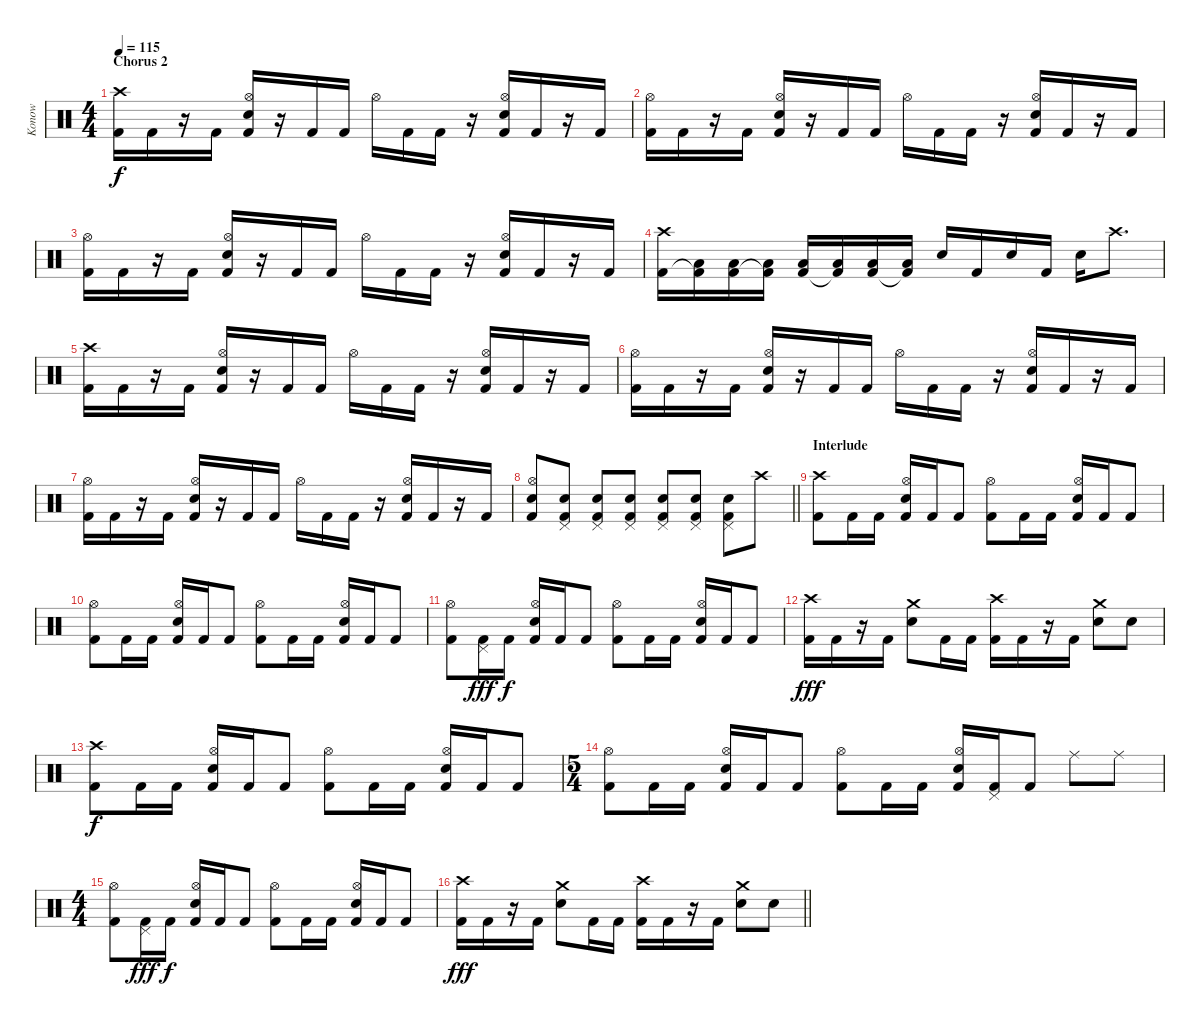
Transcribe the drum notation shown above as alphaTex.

\track ("Konow" "Konow") {instrument percussion}
\staff {score}
\articulation defaults
\ts (4 4)
\section ("" "Chorus 2")
\tempo 115
\clef neutral
\ks c
("Crash high (hit)" "Kick (hit) 2").16{dy f} "Kick (hit) 2".16 r.16 "Kick (hit) 2".16 ("Hi-Hat (open)" "Electric Snare (hit)" "Kick (hit) 2").16 r.16 "Kick (hit) 2".16 "Kick (hit) 2".16 "Hi-Hat (open)".16 "Kick (hit) 2".16 "Kick (hit) 2".16 r.16 ("Hi-Hat (open)" "Electric Snare (hit)" "Kick (hit) 2").16 "Kick (hit) 2".16 r.16 "Kick (hit) 2".16 |
("Hi-Hat (open)" "Kick (hit) 2").16 "Kick (hit) 2".16 r.16 "Kick (hit) 2".16 ("Hi-Hat (open)" "Electric Snare (hit)" "Kick (hit) 2").16 r.16 "Kick (hit) 2".16 "Kick (hit) 2".16 "Hi-Hat (open)".16 "Kick (hit) 2".16 "Kick (hit) 2".16 r.16 ("Hi-Hat (open)" "Electric Snare (hit)" "Kick (hit) 2").16 "Kick (hit) 2".16 r.16 "Kick (hit) 2".16 |
("Hi-Hat (open)" "Kick (hit) 2").16 "Kick (hit) 2".16 r.16 "Kick (hit) 2".16 ("Hi-Hat (open)" "Electric Snare (hit)" "Kick (hit) 2").16 r.16 "Kick (hit) 2".16 "Kick (hit) 2".16 "Hi-Hat (open)".16 "Kick (hit) 2".16 "Kick (hit) 2".16 r.16 ("Hi-Hat (open)" "Electric Snare (hit)" "Kick (hit) 2").16 "Kick (hit) 2".16 r.16 "Kick (hit) 2".16 |
("Crash high (hit)" "Kick (hit) 2").16 ("Low Tom (hit)" "Kick (hit) 2"{t}).16 ("Low Tom (hit)" "Kick (hit) 2").16 ("Low Tom (hit)" "Kick (hit) 2"{t}).16 ("Low Tom (hit)" "Kick (hit) 2").16 ("Low Tom (hit)" "Kick (hit) 2"{t}).16 ("Low Tom (hit)" "Kick (hit) 2").16 ("Low Tom (hit)" "Kick (hit) 2"{t}).16 "Electric Snare (hit)".16 "Kick (hit) 2".16 "Electric Snare (hit)".16 "Kick (hit) 2".16 "Electric Snare (hit)".16 "Crash high (hit)".8{d} |
("Crash high (hit)" "Kick (hit) 2").16 "Kick (hit) 2".16 r.16 "Kick (hit) 2".16 ("Hi-Hat (open)" "Electric Snare (hit)" "Kick (hit) 2").16 r.16 "Kick (hit) 2".16 "Kick (hit) 2".16 "Hi-Hat (open)".16 "Kick (hit) 2".16 "Kick (hit) 2".16 r.16 ("Hi-Hat (open)" "Electric Snare (hit)" "Kick (hit) 2").16 "Kick (hit) 2".16 r.16 "Kick (hit) 2".16 |
("Hi-Hat (open)" "Kick (hit) 2").16 "Kick (hit) 2".16 r.16 "Kick (hit) 2".16 ("Hi-Hat (open)" "Electric Snare (hit)" "Kick (hit) 2").16 r.16 "Kick (hit) 2".16 "Kick (hit) 2".16 "Hi-Hat (open)".16 "Kick (hit) 2".16 "Kick (hit) 2".16 r.16 ("Hi-Hat (open)" "Electric Snare (hit)" "Kick (hit) 2").16 "Kick (hit) 2".16 r.16 "Kick (hit) 2".16 |
("Hi-Hat (open)" "Kick (hit) 2").16 "Kick (hit) 2".16 r.16 "Kick (hit) 2".16 ("Hi-Hat (open)" "Electric Snare (hit)" "Kick (hit) 2").16 r.16 "Kick (hit) 2".16 "Kick (hit) 2".16 "Hi-Hat (open)".16 "Kick (hit) 2".16 "Kick (hit) 2".16 r.16 ("Hi-Hat (open)" "Electric Snare (hit)" "Kick (hit) 2").16 "Kick (hit) 2".16 r.16 "Kick (hit) 2".16 |
\barLineRight lightlight
("Hi-Hat (open)" "Electric Snare (hit)" "Kick (hit) 2").8 ("Pedal Hi-Hat (hit)" "Electric Snare (hit)" "Kick (hit) 2").8 ("Pedal Hi-Hat (hit)" "Electric Snare (hit)" "Kick (hit) 2").8 ("Pedal Hi-Hat (hit)" "Electric Snare (hit)" "Kick (hit) 2").8 ("Pedal Hi-Hat (hit)" "Electric Snare (hit)" "Kick (hit) 2").8 ("Pedal Hi-Hat (hit)" "Electric Snare (hit)" "Kick (hit) 2").8 ("Pedal Hi-Hat (hit)" "Electric Snare (hit)" "Kick (hit) 2").8 "Crash high (hit)".8 |
\section ("" "Interlude")
("Crash high (hit)" "Kick (hit) 2").8 "Kick (hit) 2".16 "Kick (hit) 2".16 ("Electric Snare (hit)" "Hi-Hat (open)" "Kick (hit) 2").16 "Kick (hit) 2".16 "Kick (hit) 2".8 ("Hi-Hat (open)" "Kick (hit) 2").8 "Kick (hit) 2".16 "Kick (hit) 2".16 ("Electric Snare (hit)" "Hi-Hat (open)" "Kick (hit) 2").16 "Kick (hit) 2".16 "Kick (hit) 2".8 |
("Hi-Hat (open)" "Kick (hit) 2").8 "Kick (hit) 2".16 "Kick (hit) 2".16 ("Electric Snare (hit)" "Hi-Hat (open)" "Kick (hit) 2").16 "Kick (hit) 2".16 "Kick (hit) 2".8 ("Hi-Hat (open)" "Kick (hit) 2").8 "Kick (hit) 2".16 "Kick (hit) 2".16 ("Electric Snare (hit)" "Hi-Hat (open)" "Kick (hit) 2").16 "Kick (hit) 2".16 "Kick (hit) 2".8 |
("Hi-Hat (open)" "Kick (hit) 2").8 ("Pedal Hi-Hat (hit)" "Kick (hit) 2").16{dy fff} "Kick (hit) 2".16{dy f} ("Electric Snare (hit)" "Hi-Hat (open)" "Kick (hit) 2").16 "Kick (hit) 2".16 "Kick (hit) 2".8 ("Hi-Hat (open)" "Kick (hit) 2").8 "Kick (hit) 2".16 "Kick (hit) 2".16 ("Electric Snare (hit)" "Hi-Hat (open)" "Kick (hit) 2").16 "Kick (hit) 2".16 "Kick (hit) 2".8 |
("Crash high (hit)" "Kick (hit) 2").16{dy fff} "Kick (hit) 2".16 r.16 "Kick (hit) 2".16 ("Crash medium (hit)" "Electric Snare (hit)").8 "Kick (hit) 2".16 "Kick (hit) 2".16 ("Crash high (hit)" "Kick (hit) 2").16 "Kick (hit) 2".16 r.16 "Kick (hit) 2".16 ("Crash medium (hit)" "Electric Snare (hit)").8 "Electric Snare (hit)".8 |
("Crash high (hit)" "Kick (hit) 2").8{dy f} "Kick (hit) 2".16 "Kick (hit) 2".16 ("Electric Snare (hit)" "Hi-Hat (open)" "Kick (hit) 2").16 "Kick (hit) 2".16 "Kick (hit) 2".8 ("Hi-Hat (open)" "Kick (hit) 2").8 "Kick (hit) 2".16 "Kick (hit) 2".16 ("Electric Snare (hit)" "Hi-Hat (open)" "Kick (hit) 2").16 "Kick (hit) 2".16 "Kick (hit) 2".8 |
\ts (5 4)
("Hi-Hat (open)" "Kick (hit) 2").8 "Kick (hit) 2".16 "Kick (hit) 2".16 ("Electric Snare (hit)" "Hi-Hat (open)" "Kick (hit) 2").16 "Kick (hit) 2".16 "Kick (hit) 2".8 ("Hi-Hat (open)" "Kick (hit) 2").8 "Kick (hit) 2".16 "Kick (hit) 2".16 ("Electric Snare (hit)" "Hi-Hat (open)" "Kick (hit) 2").16 ("Pedal Hi-Hat (hit)" "Kick (hit) 2").16 "Kick (hit) 2".8 "Ride (middle)".8 "Ride (middle)".8 |
\ts (4 4)
("Hi-Hat (open)" "Kick (hit) 2").8 ("Pedal Hi-Hat (hit)" "Kick (hit) 2").16{dy fff} "Kick (hit) 2".16{dy f} ("Electric Snare (hit)" "Hi-Hat (open)" "Kick (hit) 2").16 "Kick (hit) 2".16 "Kick (hit) 2".8 ("Hi-Hat (open)" "Kick (hit) 2").8 "Kick (hit) 2".16 "Kick (hit) 2".16 ("Electric Snare (hit)" "Hi-Hat (open)" "Kick (hit) 2").16 "Kick (hit) 2".16 "Kick (hit) 2".8 |
\barLineRight lightlight
("Crash high (hit)" "Kick (hit) 2").16{dy fff} "Kick (hit) 2".16 r.16 "Kick (hit) 2".16 ("Crash medium (hit)" "Electric Snare (hit)").8 "Kick (hit) 2".16 "Kick (hit) 2".16 ("Crash high (hit)" "Kick (hit) 2").16 "Kick (hit) 2".16 r.16 "Kick (hit) 2".16 ("Crash medium (hit)" "Electric Snare (hit)").8 "Electric Snare (hit)".8
